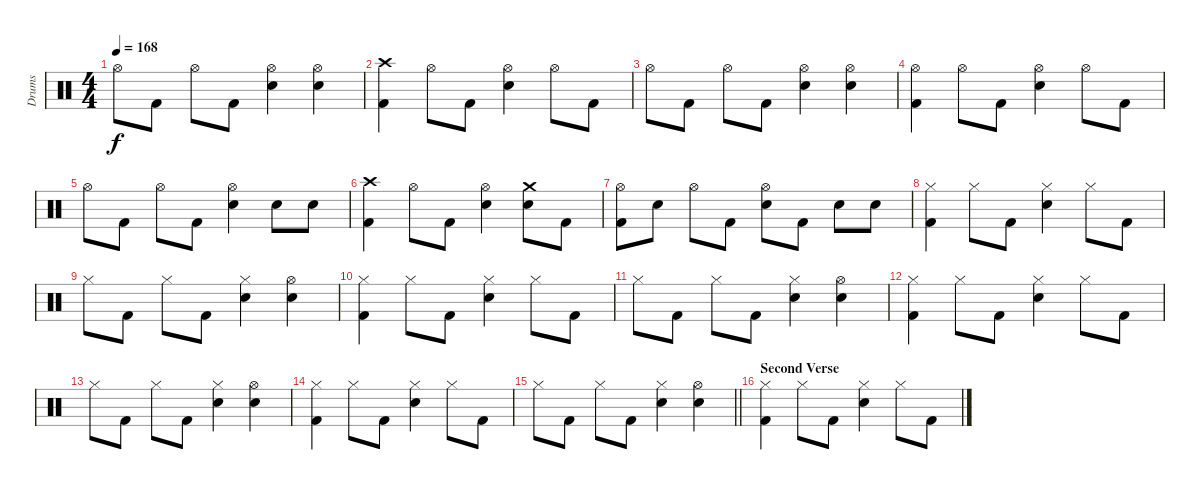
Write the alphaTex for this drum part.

\track ("Drums" "Drums") {instrument percussion}
\staff {score}
\articulation defaults
\ts (4 4)
\tempo 168
\clef neutral
\ks c "Hi-Hat (open)".8{dy f} "Kick (hit) 2".8 "Hi-Hat (open)".8 "Kick (hit) 2".8
("Hi-Hat (open)" "Snare (hit) 2").4 ("Hi-Hat (open)" "Snare (hit) 2").4 |
("Crash high (hit)" "Kick (hit) 2").4 "Hi-Hat (open)".8 "Kick (hit) 2".8 ("Hi-Hat (open)" "Snare (hit) 2").4 "Hi-Hat (open)".8 "Kick (hit) 2".8 |
"Hi-Hat (open)".8 "Kick (hit) 2".8 "Hi-Hat (open)".8 "Kick (hit) 2".8 ("Hi-Hat (open)" "Snare (hit) 2").4 ("Hi-Hat (open)" "Snare (hit) 2").4 |
("Hi-Hat (open)" "Kick (hit) 2").4 "Hi-Hat (open)".8 "Kick (hit) 2".8 ("Hi-Hat (open)" "Snare (hit) 2").4 "Hi-Hat (open)".8 "Kick (hit) 2".8 |
"Hi-Hat (open)".8 "Kick (hit) 2".8 "Hi-Hat (open)".8 "Kick (hit) 2".8 ("Hi-Hat (open)" "Snare (hit) 2").4 "Snare (hit) 2".8 "Snare (hit) 2".8 |
("Crash high (hit)" "Kick (hit) 2").4 "Hi-Hat (open)".8 "Kick (hit) 2".8 ("Hi-Hat (open)" "Snare (hit) 2").4 ("Crash medium (hit)" "Snare (hit) 2").8 "Kick (hit) 2".8 |
("Hi-Hat (open)" "Kick (hit) 2").8 "Snare (hit) 2".8 "Hi-Hat (open)".8 "Kick (hit) 2".8 ("Hi-Hat (open)" "Snare (hit) 2").8 "Kick (hit) 2".8 "Snare (hit) 2".8 "Snare (hit) 2".8 |
("Hi-Hat (closed)" "Kick (hit) 2").4 "Hi-Hat (closed)".8 "Kick (hit) 2".8 ("Hi-Hat (closed)" "Snare (hit) 2").4 "Hi-Hat (closed)".8 "Kick (hit) 2".8 |
"Hi-Hat (closed)".8 "Kick (hit) 2".8 "Hi-Hat (closed)".8 "Kick (hit) 2".8 ("Hi-Hat (closed)" "Snare (hit) 2").4 ("Hi-Hat (open)" "Snare (hit) 2").4 |
("Hi-Hat (closed)" "Kick (hit) 2").4 "Hi-Hat (closed)".8 "Kick (hit) 2".8 ("Hi-Hat (closed)" "Snare (hit) 2").4 "Hi-Hat (closed)".8 "Kick (hit) 2".8 |
"Hi-Hat (closed)".8 "Kick (hit) 2".8 "Hi-Hat (closed)".8 "Kick (hit) 2".8 ("Hi-Hat (closed)" "Snare (hit) 2").4 ("Hi-Hat (open)" "Snare (hit) 2").4 |
("Hi-Hat (closed)" "Kick (hit) 2").4 "Hi-Hat (closed)".8 "Kick (hit) 2".8 ("Hi-Hat (closed)" "Snare (hit) 2").4 "Hi-Hat (closed)".8 "Kick (hit) 2".8 |
"Hi-Hat (closed)".8 "Kick (hit) 2".8 "Hi-Hat (closed)".8 "Kick (hit) 2".8 ("Hi-Hat (closed)" "Snare (hit) 2").4 ("Hi-Hat (open)" "Snare (hit) 2").4 |
("Hi-Hat (closed)" "Kick (hit) 2").4 "Hi-Hat (closed)".8 "Kick (hit) 2".8 ("Hi-Hat (closed)" "Snare (hit) 2").4 "Hi-Hat (closed)".8 "Kick (hit) 2".8 |
\barLineRight lightlight "Hi-Hat (closed)".8 "Kick (hit) 2".8 "Hi-Hat (closed)".8 "Kick (hit) 2".8
("Hi-Hat (closed)" "Snare (hit) 2").4 ("Hi-Hat (open)" "Snare (hit) 2").4 |
\section ("" "Second Verse")
("Hi-Hat (closed)" "Kick (hit) 2").4 "Hi-Hat (closed)".8 "Kick (hit) 2".8 ("Hi-Hat (closed)" "Snare (hit) 2").4 "Hi-Hat (closed)".8 "Kick (hit) 2".8
